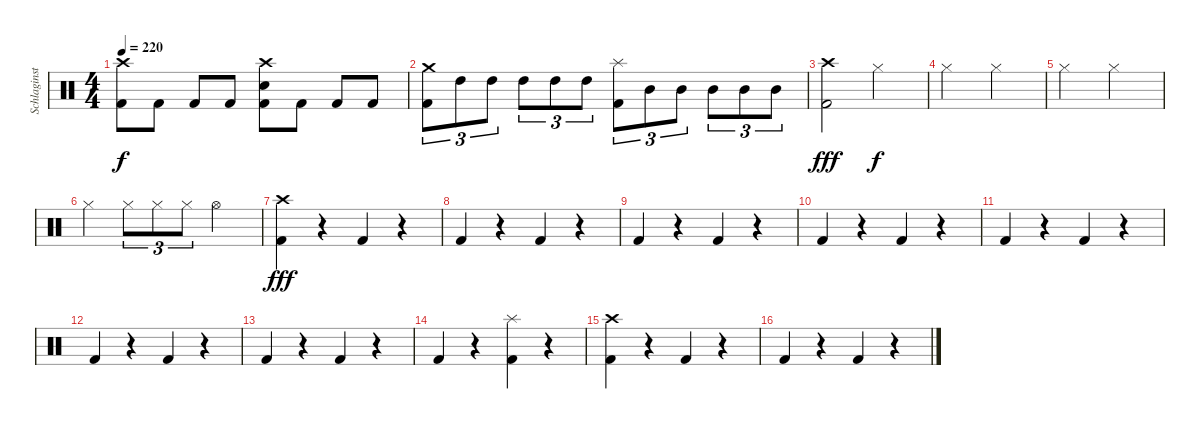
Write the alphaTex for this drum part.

\track ("Schlaginstrumente - Auswahl" "Schlaginst") {instrument percussion}
\staff {score}
\articulation defaults
\ts (4 4)
\tempo 220
\clef neutral
\ks c
("Crash high (hit)" "Kick (hit) 2").8{dy f} "Kick (hit) 2".8 "Kick (hit) 2".8 "Kick (hit) 2".8 ("Crash high (hit)" "Snare (hit) 2" "Kick (hit) 2").8 "Kick (hit) 2".8 "Kick (hit) 2".8 "Kick (hit) 2".8 |
("Crash medium (hit)" "Kick (hit) 2").8{tu (3 2)} "High Tom (hit)".8{tu (3 2)} "High Tom (hit)".8{tu (3 2)} "High Tom (hit)".8{tu (3 2)} "High Tom (hit)".8{tu (3 2)} "High Tom (hit)".8{tu (3 2)} ("Splash (hit)" "Kick (hit) 2").8{tu (3 2)} "Mid Tom (hit)".8{tu (3 2)} "Mid Tom (hit)".8{tu (3 2)} "Mid Tom (hit)".8{tu (3 2)} "Mid Tom (hit)".8{tu (3 2)} "Mid Tom (hit)".8{tu (3 2)} |
("Crash high (hit)" "Kick (hit) 2").2{dy fff} "Hi-Hat (closed)".2{dy f} |
"Hi-Hat (closed)".2 "Hi-Hat (closed)".2 |
"Hi-Hat (closed)".2 "Hi-Hat (closed)".2 |
"Hi-Hat (closed)".4 "Hi-Hat (closed)".8{tu (3 2)} "Hi-Hat (closed)".8{tu (3 2)} "Hi-Hat (closed)".8{tu (3 2)} "Hi-Hat (open)".2 |
("Crash high (hit)" "Kick (hit) 2").4{dy fff} r.4 "Kick (hit) 2".4 r.4 |
"Kick (hit) 2".4 r.4 "Kick (hit) 2".4 r.4 |
"Kick (hit) 2".4 r.4 "Kick (hit) 2".4 r.4 |
"Kick (hit) 2".4 r.4 "Kick (hit) 2".4 r.4 |
"Kick (hit) 2".4 r.4 "Kick (hit) 2".4 r.4 |
"Kick (hit) 2".4 r.4 "Kick (hit) 2".4 r.4 |
"Kick (hit) 2".4 r.4 "Kick (hit) 2".4 r.4 |
"Kick (hit) 2".4 r.4 ("Splash (hit)" "Kick (hit) 2").4 r.4 |
("Crash high (hit)" "Kick (hit) 2").4 r.4 "Kick (hit) 2".4 r.4 |
"Kick (hit) 2".4 r.4 "Kick (hit) 2".4 r.4
